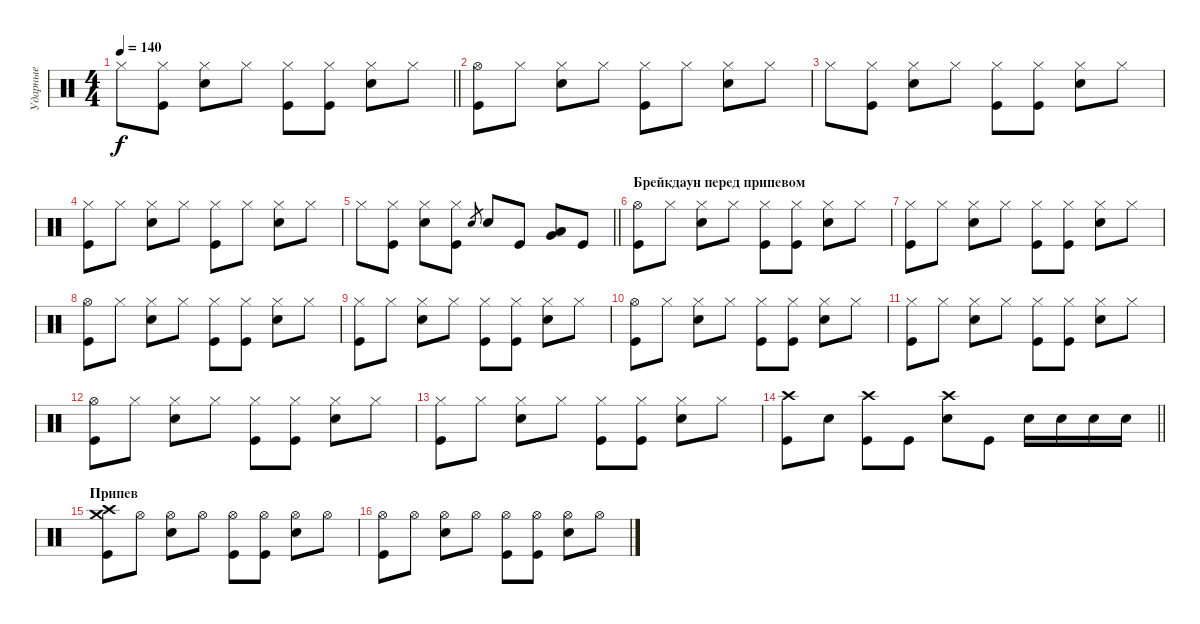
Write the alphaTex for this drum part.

\track ("Ударные" "Ударные") {instrument percussion}
\staff {score}
\articulation defaults
\ts (4 4)
\tempo 140
\clef neutral
\barLineRight lightlight
\ks c "Hi-Hat (closed)".8{dy f}
("Hi-Hat (closed)" "Kick (hit)").8 ("Hi-Hat (closed)" "Snare (hit) 2").8 "Hi-Hat (closed)".8 ("Hi-Hat (closed)" "Kick (hit)").8 ("Hi-Hat (closed)" "Kick (hit)").8 ("Hi-Hat (closed)" "Snare (hit) 2").8 "Hi-Hat (closed)".8 |
("Hi-Hat (open)" "Kick (hit)").8 "Hi-Hat (closed)".8 ("Hi-Hat (closed)" "Snare (hit) 2").8 "Hi-Hat (closed)".8 ("Hi-Hat (closed)" "Kick (hit)").8 "Hi-Hat (closed)".8 ("Hi-Hat (closed)" "Snare (hit) 2").8 "Hi-Hat (closed)".8 |
"Hi-Hat (closed)".8 ("Hi-Hat (closed)" "Kick (hit)").8 ("Hi-Hat (closed)" "Snare (hit) 2").8 "Hi-Hat (closed)".8 ("Hi-Hat (closed)" "Kick (hit)").8 ("Hi-Hat (closed)" "Kick (hit)").8 ("Hi-Hat (closed)" "Snare (hit) 2").8 "Hi-Hat (closed)".8 |
("Hi-Hat (closed)" "Kick (hit)").8 "Hi-Hat (closed)".8 ("Hi-Hat (closed)" "Snare (hit) 2").8 "Hi-Hat (closed)".8 ("Hi-Hat (closed)" "Kick (hit)").8 "Hi-Hat (closed)".8 ("Hi-Hat (closed)" "Snare (hit) 2").8 "Hi-Hat (closed)".8 |
\barLineRight lightlight "Hi-Hat (closed)".8
("Hi-Hat (closed)" "Kick (hit)").8 ("Hi-Hat (closed)" "Snare (hit) 2").8 ("Hi-Hat (closed)" "Kick (hit)").8 "Snare (hit) 2".8{gr} "Snare (hit) 2".8 "Kick (hit)".8 ("Low Floor Tom (hit)" "Very Low Tom (hit)").8 "Kick (hit)".8 |
\section ("" "Брейкдаун перед припевом")
("Hi-Hat (open)" "Kick (hit)").8 "Hi-Hat (closed)".8 ("Hi-Hat (closed)" "Snare (hit) 2").8 "Hi-Hat (closed)".8 ("Hi-Hat (closed)" "Kick (hit)").8 ("Hi-Hat (closed)" "Kick (hit)").8 ("Hi-Hat (closed)" "Snare (hit) 2").8 "Hi-Hat (closed)".8 |
("Hi-Hat (closed)" "Kick (hit)").8 "Hi-Hat (closed)".8 ("Hi-Hat (closed)" "Snare (hit) 2").8 "Hi-Hat (closed)".8 ("Hi-Hat (closed)" "Kick (hit)").8 ("Hi-Hat (closed)" "Kick (hit)").8 ("Hi-Hat (closed)" "Snare (hit) 2").8 "Hi-Hat (closed)".8 |
("Hi-Hat (open)" "Kick (hit)").8 "Hi-Hat (closed)".8 ("Hi-Hat (closed)" "Snare (hit) 2").8 "Hi-Hat (closed)".8 ("Hi-Hat (closed)" "Kick (hit)").8 ("Hi-Hat (closed)" "Kick (hit)").8 ("Hi-Hat (closed)" "Snare (hit) 2").8 "Hi-Hat (closed)".8 |
("Hi-Hat (closed)" "Kick (hit)").8 "Hi-Hat (closed)".8 ("Hi-Hat (closed)" "Snare (hit) 2").8 "Hi-Hat (closed)".8 ("Hi-Hat (closed)" "Kick (hit)").8 ("Hi-Hat (closed)" "Kick (hit)").8 ("Hi-Hat (closed)" "Snare (hit) 2").8 "Hi-Hat (closed)".8 |
("Hi-Hat (open)" "Kick (hit)").8 "Hi-Hat (closed)".8 ("Hi-Hat (closed)" "Snare (hit) 2").8 "Hi-Hat (closed)".8 ("Hi-Hat (closed)" "Kick (hit)").8 ("Hi-Hat (closed)" "Kick (hit)").8 ("Hi-Hat (closed)" "Snare (hit) 2").8 "Hi-Hat (closed)".8 |
("Hi-Hat (closed)" "Kick (hit)").8 "Hi-Hat (closed)".8 ("Hi-Hat (closed)" "Snare (hit) 2").8 "Hi-Hat (closed)".8 ("Hi-Hat (closed)" "Kick (hit)").8 ("Hi-Hat (closed)" "Kick (hit)").8 ("Hi-Hat (closed)" "Snare (hit) 2").8 "Hi-Hat (closed)".8 |
("Hi-Hat (open)" "Kick (hit)").8 "Hi-Hat (closed)".8 ("Hi-Hat (closed)" "Snare (hit) 2").8 "Hi-Hat (closed)".8 ("Hi-Hat (closed)" "Kick (hit)").8 ("Hi-Hat (closed)" "Kick (hit)").8 ("Hi-Hat (closed)" "Snare (hit) 2").8 "Hi-Hat (closed)".8 |
("Hi-Hat (closed)" "Kick (hit)").8 "Hi-Hat (closed)".8 ("Hi-Hat (closed)" "Snare (hit) 2").8 "Hi-Hat (closed)".8 ("Hi-Hat (closed)" "Kick (hit)").8 ("Hi-Hat (closed)" "Kick (hit)").8 ("Hi-Hat (closed)" "Snare (hit) 2").8 "Hi-Hat (closed)".8 |
\barLineRight lightlight
("Crash high (hit)" "Kick (hit)").8 "Snare (hit) 2".8 ("Crash high (hit)" "Kick (hit)").8 "Kick (hit)".8 ("Crash high (hit)" "Snare (hit) 2").8 "Kick (hit)".8 "Snare (hit) 2".16 "Snare (hit) 2".16 "Snare (hit) 2".16 "Snare (hit) 2".16 |
\section ("" "Припев")
("Crash medium (hit)" "Crash high (hit)" "Kick (hit)").8 "Hi-Hat (open)".8 ("Hi-Hat (open)" "Snare (hit) 2").8 "Hi-Hat (open)".8 ("Hi-Hat (open)" "Kick (hit)").8 ("Hi-Hat (open)" "Kick (hit)").8 ("Hi-Hat (open)" "Snare (hit) 2").8 "Hi-Hat (open)".8 |
("Hi-Hat (open)" "Kick (hit)").8 "Hi-Hat (open)".8 ("Hi-Hat (open)" "Snare (hit) 2").8 "Hi-Hat (open)".8 ("Hi-Hat (open)" "Kick (hit)").8 ("Hi-Hat (open)" "Kick (hit)").8 ("Hi-Hat (open)" "Snare (hit) 2").8 "Hi-Hat (open)".8
